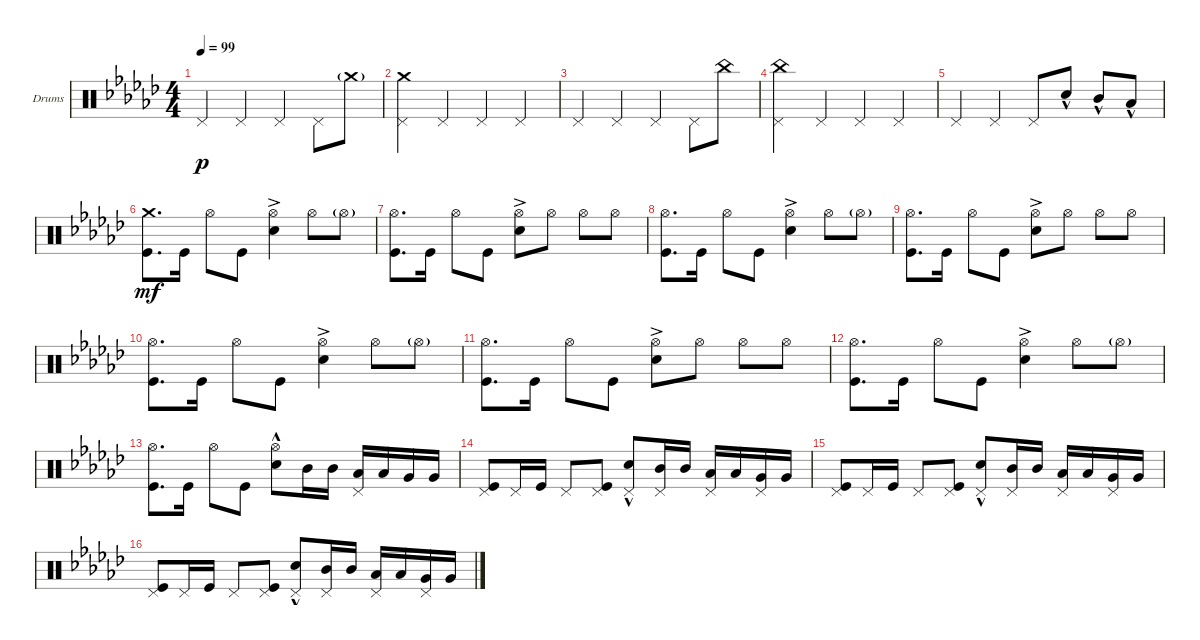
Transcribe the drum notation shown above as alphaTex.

\bracketExtendMode groupsimilarinstruments
\firstSystemTrackNameOrientation horizontal
\otherSystemsTrackNameOrientation horizontal
\track ("Drumkit" "Drums") {instrument percussion}
\staff {score}
\articulation defaults
\ts (4 4)
\tempo 99
\clef neutral
\ks ebminor "Pedal Hi-Hat (hit)".4{dy p} "Pedal Hi-Hat (hit)".4 "Pedal Hi-Hat (hit)".4 "Pedal Hi-Hat (hit)".8 "Crash medium (hit)"{g}.8
|
("Pedal Hi-Hat (hit)" "Crash medium (hit)").4 "Pedal Hi-Hat (hit)".4 "Pedal Hi-Hat (hit)".4 "Pedal Hi-Hat (hit)".4 |
"Pedal Hi-Hat (hit)".4 "Pedal Hi-Hat (hit)".4 "Pedal Hi-Hat (hit)".4 "Pedal Hi-Hat (hit)".8 "China (hit)".8 |
("China (hit)" "Pedal Hi-Hat (hit)").4 "Pedal Hi-Hat (hit)".4 "Pedal Hi-Hat (hit)".4 "Pedal Hi-Hat (hit)".4 |
"Pedal Hi-Hat (hit)".4 "Pedal Hi-Hat (hit)".4 "Pedal Hi-Hat (hit)".8 "Snare (hit) 2"{hac}.8 "Mid Tom (hit)"{hac}.8 "Low Tom (hit)"{hac}.8 |
("Kick (hit)" "Crash medium (hit)").8{d dy mf} "Kick (hit)".16 "Hi-Hat (open)".8 "Kick (hit)".8 ("Hi-Hat (open)" "Snare (hit) 2"{ac}).4 "Hi-Hat (open)".8 "Hi-Hat (open)"{g}.8 |
("Kick (hit)" "Hi-Hat (open)").8{d} "Kick (hit)".16 "Hi-Hat (open)".8 "Kick (hit)".8 ("Hi-Hat (open)" "Snare (hit) 2"{ac}).8 "Hi-Hat (open)".8 "Hi-Hat (open)".8 "Hi-Hat (open)".8 |
("Kick (hit)" "Hi-Hat (open)").8{d} "Kick (hit)".16 "Hi-Hat (open)".8 "Kick (hit)".8 ("Hi-Hat (open)" "Snare (hit) 2"{ac}).4 "Hi-Hat (open)".8 "Hi-Hat (open)"{g}.8 |
("Kick (hit)" "Hi-Hat (open)").8{d} "Kick (hit)".16 "Hi-Hat (open)".8 "Kick (hit)".8 ("Hi-Hat (open)" "Snare (hit) 2"{ac}).8 "Hi-Hat (open)".8 "Hi-Hat (open)".8 "Hi-Hat (open)".8 |
("Kick (hit)" "Hi-Hat (open)").8{d} "Kick (hit)".16 "Hi-Hat (open)".8 "Kick (hit)".8 ("Hi-Hat (open)" "Snare (hit) 2"{ac}).4 "Hi-Hat (open)".8 "Hi-Hat (open)"{g}.8 |
("Kick (hit)" "Hi-Hat (open)").8{d} "Kick (hit)".16 "Hi-Hat (open)".8 "Kick (hit)".8 ("Hi-Hat (open)" "Snare (hit) 2"{ac}).8 "Hi-Hat (open)".8 "Hi-Hat (open)".8 "Hi-Hat (open)".8 |
("Kick (hit)" "Hi-Hat (open)").8{d} "Kick (hit)".16 "Hi-Hat (open)".8 "Kick (hit)".8 ("Hi-Hat (open)" "Snare (hit) 2"{ac}).4 "Hi-Hat (open)".8 "Hi-Hat (open)"{g}.8 |
("Kick (hit)" "Hi-Hat (open)").8{d} "Kick (hit)".16 "Hi-Hat (open)".8 "Kick (hit)".8 ("Snare (hit) 2"{hac} "Hi-Hat (open)").8 "Mid Tom (hit)".16 "Mid Tom (hit)".16 ("Low Tom (hit)" "Pedal Hi-Hat (hit)").16 "Low Tom (hit)".16 "Very Low Tom (hit)".16 "Very Low Tom (hit)".16 |
("Pedal Hi-Hat (hit)" "Kick (hit)").8 "Pedal Hi-Hat (hit)".16 "Kick (hit)".16 "Pedal Hi-Hat (hit)".8 ("Kick (hit)" "Pedal Hi-Hat (hit)").8 ("Pedal Hi-Hat (hit)" "Snare (hit) 2"{hac}).8 ("Pedal Hi-Hat (hit)" "Mid Tom (hit)").16 "Mid Tom (hit)".16 ("Low Tom (hit)" "Pedal Hi-Hat (hit)").16 "Low Tom (hit)".16 ("Very Low Tom (hit)" "Pedal Hi-Hat (hit)").16 "Very Low Tom (hit)".16 |
("Pedal Hi-Hat (hit)" "Kick (hit)").8 "Pedal Hi-Hat (hit)".16 "Kick (hit)".16 "Pedal Hi-Hat (hit)".8 ("Kick (hit)" "Pedal Hi-Hat (hit)").8 ("Pedal Hi-Hat (hit)" "Snare (hit) 2"{hac}).8 ("Pedal Hi-Hat (hit)" "Mid Tom (hit)").16 "Mid Tom (hit)".16 ("Low Tom (hit)" "Pedal Hi-Hat (hit)").16 "Low Tom (hit)".16 ("Very Low Tom (hit)" "Pedal Hi-Hat (hit)").16 "Very Low Tom (hit)".16 |
("Pedal Hi-Hat (hit)" "Kick (hit)").8 "Pedal Hi-Hat (hit)".16 "Kick (hit)".16 "Pedal Hi-Hat (hit)".8 ("Kick (hit)" "Pedal Hi-Hat (hit)").8 ("Pedal Hi-Hat (hit)" "Snare (hit) 2"{hac}).8 ("Pedal Hi-Hat (hit)" "Mid Tom (hit)").16 "Mid Tom (hit)".16 ("Low Tom (hit)" "Pedal Hi-Hat (hit)").16 "Low Tom (hit)".16 ("Very Low Tom (hit)" "Pedal Hi-Hat (hit)").16 "Very Low Tom (hit)".16
